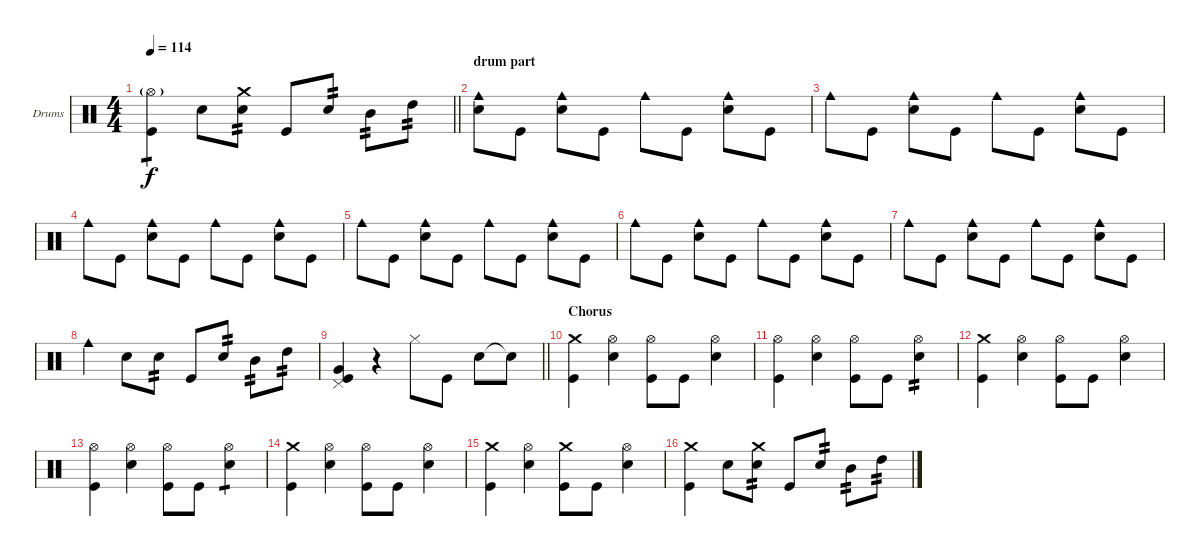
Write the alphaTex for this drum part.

\bracketExtendMode groupsimilarinstruments
\firstSystemTrackNameOrientation horizontal
\otherSystemsTrackNameOrientation horizontal
\track ("Drumkit" "Drums") {instrument percussion}
\staff {score}
\articulation defaults
\ts (4 4)
\tempo 114
\clef neutral
\barLineRight lightlight
\ks c
("Hi-Hat (open)"{g} "Kick (hit)").4{tp 1 dy f} "Snare (hit) 2".8 ("Crash medium (hit)" "Snare (hit) 2").8{tp 2} "Kick (hit)".8 "Snare (hit) 2".8{tp 2} "Mid Tom (hit)".8{tp 2} "High Tom (hit)".8{tp 2} |
\section ("" "drum part")
("Snare (hit) 2" "Cowbell medium (hit)").8 "Kick (hit)".8 ("Cowbell medium (hit)" "Snare (hit) 2").8 "Kick (hit)".8 "Cowbell medium (hit)".8 "Kick (hit)".8 ("Cowbell medium (hit)" "Snare (hit) 2").8 "Kick (hit)".8 |
"Cowbell medium (hit)".8 "Kick (hit)".8 ("Cowbell medium (hit)" "Snare (hit) 2").8 "Kick (hit)".8 "Cowbell medium (hit)".8 "Kick (hit)".8 ("Cowbell medium (hit)" "Snare (hit) 2").8 "Kick (hit)".8 |
"Cowbell medium (hit)".8 "Kick (hit)".8 ("Cowbell medium (hit)" "Snare (hit) 2").8 "Kick (hit)".8 "Cowbell medium (hit)".8 "Kick (hit)".8 ("Cowbell medium (hit)" "Snare (hit) 2").8 "Kick (hit)".8 |
"Cowbell medium (hit)".8 "Kick (hit)".8 ("Cowbell medium (hit)" "Snare (hit) 2").8 "Kick (hit)".8 "Cowbell medium (hit)".8 "Kick (hit)".8 ("Cowbell medium (hit)" "Snare (hit) 2").8 "Kick (hit)".8 |
"Cowbell medium (hit)".8 "Kick (hit)".8 ("Cowbell medium (hit)" "Snare (hit) 2").8 "Kick (hit)".8 "Cowbell medium (hit)".8 "Kick (hit)".8 ("Cowbell medium (hit)" "Snare (hit) 2").8 "Kick (hit)".8 |
"Cowbell medium (hit)".8 "Kick (hit)".8 ("Cowbell medium (hit)" "Snare (hit) 2").8 "Kick (hit)".8 "Cowbell medium (hit)".8 "Kick (hit)".8 ("Cowbell medium (hit)" "Snare (hit) 2").8 "Kick (hit)".8 |
"Cowbell medium (hit)".4 "Snare (hit) 2".8 "Snare (hit) 2".8{tp 2} "Kick (hit)".8 "Snare (hit) 2".8{tp 2} "Mid Tom (hit)".8{tp 2} "High Tom (hit)".8{tp 2} |
\barLineRight lightlight
("Pedal Hi-Hat (hit)" "Very Low Tom (hit)" "Kick (hit)").4 r.4 "Hi-Hat (closed)".8 "Kick (hit)".8 "Snare (hit) 2".8 "Snare (hit) 2"{t}.8 |
\section ("" "Chorus")
("Crash medium (hit)" "Kick (hit)").4 ("Hi-Hat (open)" "Snare (hit) 2").4 ("Hi-Hat (open)" "Kick (hit)").8 "Kick (hit)".8 ("Hi-Hat (open)" "Snare (hit) 2").4 |
("Hi-Hat (open)" "Kick (hit)").4 ("Hi-Hat (open)" "Snare (hit) 2").4 ("Hi-Hat (open)" "Kick (hit)").8 "Kick (hit)".8 ("Hi-Hat (open)" "Snare (hit) 2").4{tp 2} |
("Crash medium (hit)" "Kick (hit)").4 ("Hi-Hat (open)" "Snare (hit) 2").4 ("Hi-Hat (open)" "Kick (hit)").8 "Kick (hit)".8 ("Hi-Hat (open)" "Snare (hit) 2").4 |
("Hi-Hat (open)" "Kick (hit)").4 ("Hi-Hat (open)" "Snare (hit) 2").4 ("Hi-Hat (open)" "Kick (hit)").8 "Kick (hit)".8 ("Hi-Hat (open)" "Snare (hit) 2").4{tp 1} |
("Crash medium (hit)" "Kick (hit)").4 ("Hi-Hat (open)" "Snare (hit) 2").4 ("Hi-Hat (open)" "Kick (hit)").8 "Kick (hit)".8 ("Hi-Hat (open)" "Snare (hit) 2").4 |
("Crash medium (hit)" "Kick (hit)").4 ("Hi-Hat (open)" "Snare (hit) 2").4 ("Crash medium (hit)" "Kick (hit)").8 "Kick (hit)".8 ("Hi-Hat (open)" "Snare (hit) 2").4 |
("Crash medium (hit)" "Kick (hit)").4 "Snare (hit) 2".8 ("Crash medium (hit)" "Snare (hit) 2").8{tp 2} "Kick (hit)".8 "Snare (hit) 2".8{tp 2} "Mid Tom (hit)".8{tp 2} "High Tom (hit)".8{tp 2}
